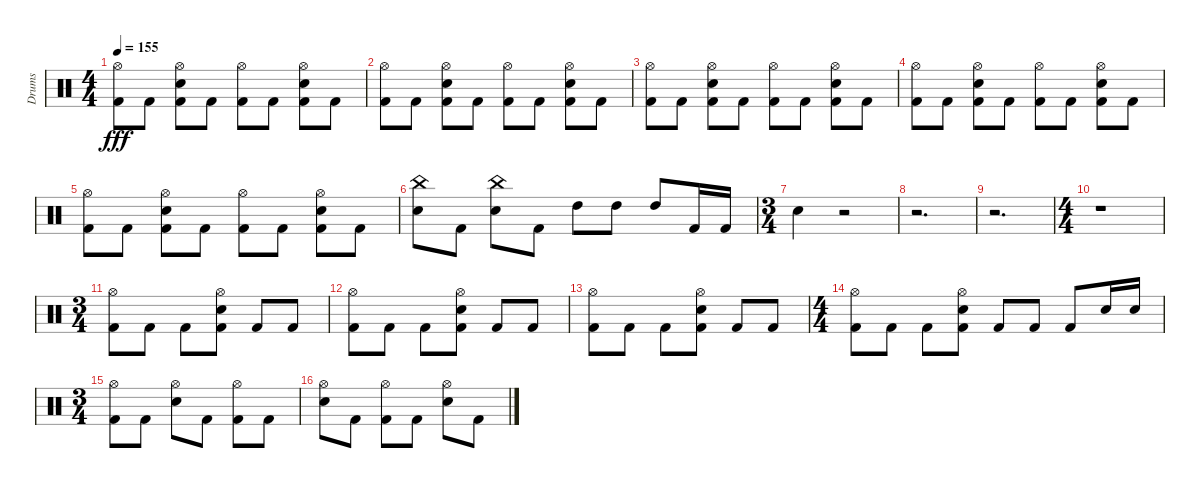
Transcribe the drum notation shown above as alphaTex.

\track ("Drums" "Drums") {instrument percussion}
\staff {score}
\articulation defaults
\ts (4 4)
\tempo 155
\clef neutral
\ks c
("Hi-Hat (open)" "Kick (hit) 2").8{dy fff} "Kick (hit) 2".8 ("Electric Snare (hit)" "Hi-Hat (open)" "Kick (hit) 2").8 "Kick (hit) 2".8 ("Hi-Hat (open)" "Kick (hit) 2").8 "Kick (hit) 2".8 ("Electric Snare (hit)" "Hi-Hat (open)" "Kick (hit) 2").8 "Kick (hit) 2".8 |
("Hi-Hat (open)" "Kick (hit) 2").8 "Kick (hit) 2".8 ("Electric Snare (hit)" "Hi-Hat (open)" "Kick (hit) 2").8 "Kick (hit) 2".8 ("Hi-Hat (open)" "Kick (hit) 2").8 "Kick (hit) 2".8 ("Electric Snare (hit)" "Hi-Hat (open)" "Kick (hit) 2").8 "Kick (hit) 2".8 |
("Hi-Hat (open)" "Kick (hit) 2").8 "Kick (hit) 2".8 ("Electric Snare (hit)" "Hi-Hat (open)" "Kick (hit) 2").8 "Kick (hit) 2".8 ("Hi-Hat (open)" "Kick (hit) 2").8 "Kick (hit) 2".8 ("Electric Snare (hit)" "Hi-Hat (open)" "Kick (hit) 2").8 "Kick (hit) 2".8 |
("Hi-Hat (open)" "Kick (hit) 2").8 "Kick (hit) 2".8 ("Electric Snare (hit)" "Hi-Hat (open)" "Kick (hit) 2").8 "Kick (hit) 2".8 ("Hi-Hat (open)" "Kick (hit) 2").8 "Kick (hit) 2".8 ("Electric Snare (hit)" "Hi-Hat (open)" "Kick (hit) 2").8 "Kick (hit) 2".8 |
("Hi-Hat (open)" "Kick (hit) 2").8 "Kick (hit) 2".8 ("Electric Snare (hit)" "Hi-Hat (open)" "Kick (hit) 2").8 "Kick (hit) 2".8 ("Hi-Hat (open)" "Kick (hit) 2").8 "Kick (hit) 2".8 ("Electric Snare (hit)" "Hi-Hat (open)" "Kick (hit) 2").8 "Kick (hit) 2".8 |
("Electric Snare (hit)" "China (hit)").8 "Kick (hit) 2".8 ("Electric Snare (hit)" "China (hit)").8 "Kick (hit) 2".8 "High Tom (hit)".8 "High Tom (hit)".8 "High Tom (hit)".8 "Kick (hit) 2".16 "Kick (hit) 2".16 |
\ts (3 4)
"Electric Snare (hit)".4 r.2 |
r.2{d} |
r.2{d} |
\ts (4 4)
r.1 |
\ts (3 4)
("Hi-Hat (open)" "Kick (hit) 2").8 "Kick (hit) 2".8 "Kick (hit) 2".8 ("Electric Snare (hit)" "Hi-Hat (open)" "Kick (hit) 2").8 "Kick (hit) 2".8 "Kick (hit) 2".8 |
("Hi-Hat (open)" "Kick (hit) 2").8 "Kick (hit) 2".8 "Kick (hit) 2".8 ("Electric Snare (hit)" "Hi-Hat (open)" "Kick (hit) 2").8 "Kick (hit) 2".8 "Kick (hit) 2".8 |
("Hi-Hat (open)" "Kick (hit) 2").8 "Kick (hit) 2".8 "Kick (hit) 2".8 ("Electric Snare (hit)" "Hi-Hat (open)" "Kick (hit) 2").8 "Kick (hit) 2".8 "Kick (hit) 2".8 |
\ts (4 4)
("Hi-Hat (open)" "Kick (hit) 2").8 "Kick (hit) 2".8 "Kick (hit) 2".8 ("Electric Snare (hit)" "Hi-Hat (open)" "Kick (hit) 2").8 "Kick (hit) 2".8 "Kick (hit) 2".8 "Kick (hit) 2".8 "Electric Snare (hit)".16 "Electric Snare (hit)".16 |
\ts (3 4)
("Hi-Hat (open)" "Kick (hit) 2").8 "Kick (hit) 2".8 ("Electric Snare (hit)" "Hi-Hat (open)").8 "Kick (hit) 2".8 ("Hi-Hat (open)" "Kick (hit) 2").8 "Kick (hit) 2".8 |
("Electric Snare (hit)" "Hi-Hat (open)").8 "Kick (hit) 2".8 ("Hi-Hat (open)" "Kick (hit) 2").8 "Kick (hit) 2".8 ("Electric Snare (hit)" "Hi-Hat (open)").8 "Kick (hit) 2".8
